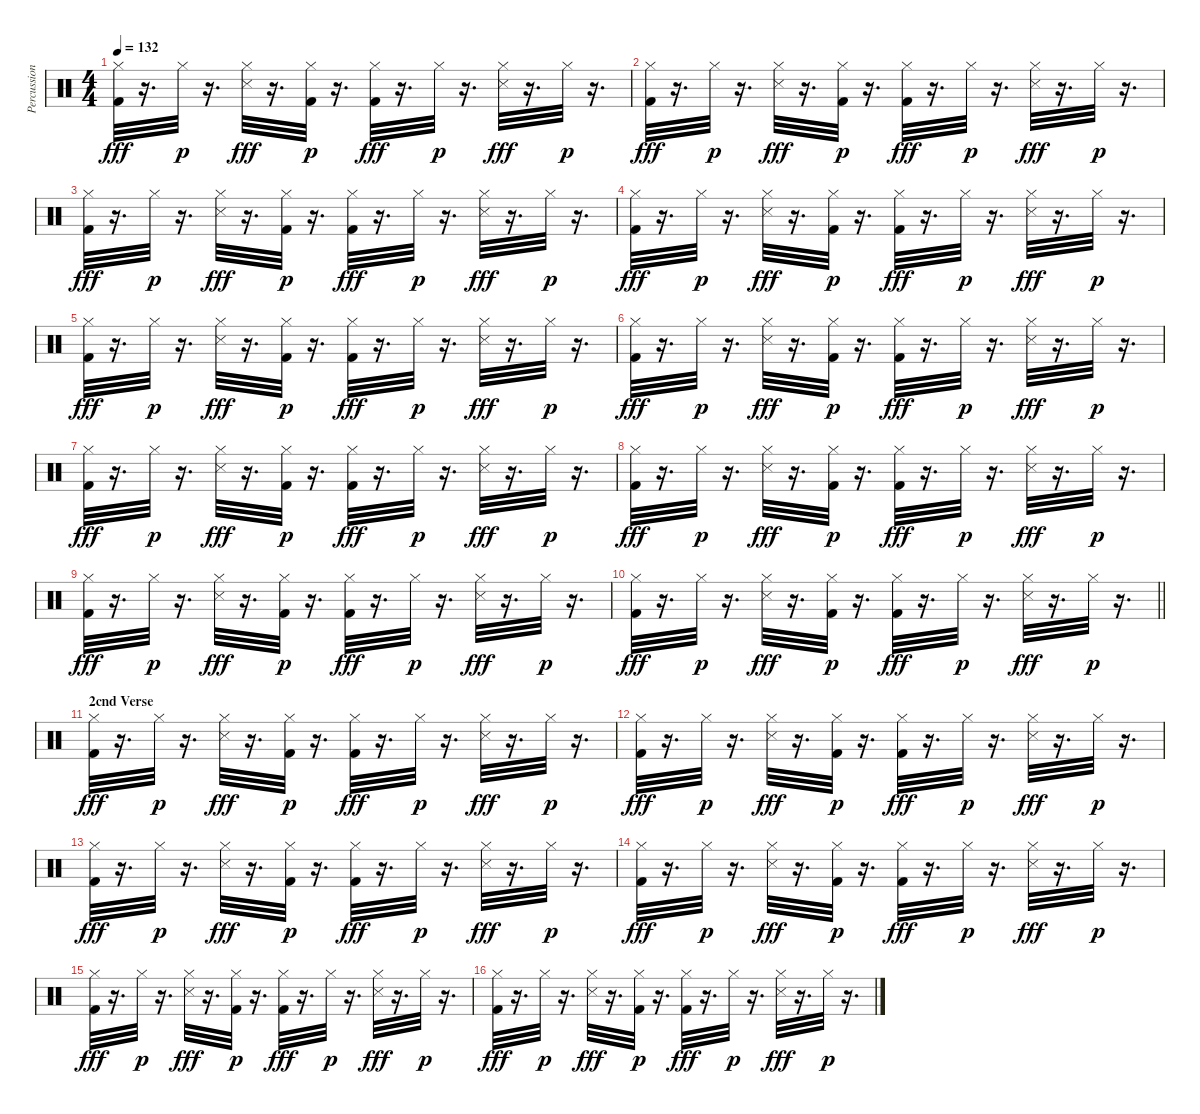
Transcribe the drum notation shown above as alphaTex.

\track ("Percussion" "Percussion") {instrument percussion}
\staff {score}
\articulation defaults
\ts (4 4)
\tempo 132
\clef neutral
\ks c
("Kick (hit) 2" "Hi-Hat (closed)").32{dy fff} r.16{d} "Hi-Hat (closed)".32{dy p} r.16{d} ("Snare (side stick) 3" "Hi-Hat (closed)").32{dy fff} r.16{d} ("Kick (hit) 2" "Hi-Hat (closed)").32{dy p} r.16{d} ("Kick (hit) 2" "Hi-Hat (closed)").32{dy fff} r.16{d} "Hi-Hat (closed)".32{dy p} r.16{d} ("Hi-Hat (closed)" "Snare (side stick) 3").32{dy fff} r.16{d} "Hi-Hat (closed)".32{dy p} r.16{d} |
("Kick (hit) 2" "Hi-Hat (closed)").32{dy fff} r.16{d} "Hi-Hat (closed)".32{dy p} r.16{d} ("Snare (side stick) 3" "Hi-Hat (closed)").32{dy fff} r.16{d} ("Kick (hit) 2" "Hi-Hat (closed)").32{dy p} r.16{d} ("Kick (hit) 2" "Hi-Hat (closed)").32{dy fff} r.16{d} "Hi-Hat (closed)".32{dy p} r.16{d} ("Hi-Hat (closed)" "Snare (side stick) 3").32{dy fff} r.16{d} "Hi-Hat (closed)".32{dy p} r.16{d} |
("Kick (hit) 2" "Hi-Hat (closed)").32{dy fff} r.16{d} "Hi-Hat (closed)".32{dy p} r.16{d} ("Snare (side stick) 3" "Hi-Hat (closed)").32{dy fff} r.16{d} ("Kick (hit) 2" "Hi-Hat (closed)").32{dy p} r.16{d} ("Kick (hit) 2" "Hi-Hat (closed)").32{dy fff} r.16{d} "Hi-Hat (closed)".32{dy p} r.16{d} ("Snare (side stick) 3" "Hi-Hat (closed)").32{dy fff} r.16{d} "Hi-Hat (closed)".32{dy p} r.16{d} |
("Kick (hit) 2" "Hi-Hat (closed)").32{dy fff} r.16{d} "Hi-Hat (closed)".32{dy p} r.16{d} ("Snare (side stick) 3" "Hi-Hat (closed)").32{dy fff} r.16{d} ("Kick (hit) 2" "Hi-Hat (closed)").32{dy p} r.16{d} ("Kick (hit) 2" "Hi-Hat (closed)").32{dy fff} r.16{d} "Hi-Hat (closed)".32{dy p} r.16{d} ("Hi-Hat (closed)" "Snare (side stick) 3").32{dy fff} r.16{d} "Hi-Hat (closed)".32{dy p} r.16{d} |
("Kick (hit) 2" "Hi-Hat (closed)").32{dy fff} r.16{d} "Hi-Hat (closed)".32{dy p} r.16{d} ("Hi-Hat (closed)" "Snare (side stick) 3").32{dy fff} r.16{d} ("Kick (hit) 2" "Hi-Hat (closed)").32{dy p} r.16{d} ("Kick (hit) 2" "Hi-Hat (closed)").32{dy fff} r.16{d} "Hi-Hat (closed)".32{dy p} r.16{d} ("Snare (side stick) 3" "Hi-Hat (closed)").32{dy fff} r.16{d} "Hi-Hat (closed)".32{dy p} r.16{d} |
("Kick (hit) 2" "Hi-Hat (closed)").32{dy fff} r.16{d} "Hi-Hat (closed)".32{dy p} r.16{d} ("Snare (side stick) 3" "Hi-Hat (closed)").32{dy fff} r.16{d} ("Kick (hit) 2" "Hi-Hat (closed)").32{dy p} r.16{d} ("Kick (hit) 2" "Hi-Hat (closed)").32{dy fff} r.16{d} "Hi-Hat (closed)".32{dy p} r.16{d} ("Hi-Hat (closed)" "Snare (side stick) 3").32{dy fff} r.16{d} "Hi-Hat (closed)".32{dy p} r.16{d} |
("Kick (hit) 2" "Hi-Hat (closed)").32{dy fff} r.16{d} "Hi-Hat (closed)".32{dy p} r.16{d} ("Hi-Hat (closed)" "Snare (side stick) 3").32{dy fff} r.16{d} ("Kick (hit) 2" "Hi-Hat (closed)").32{dy p} r.16{d} ("Kick (hit) 2" "Hi-Hat (closed)").32{dy fff} r.16{d} "Hi-Hat (closed)".32{dy p} r.16{d} ("Snare (side stick) 3" "Hi-Hat (closed)").32{dy fff} r.16{d} "Hi-Hat (closed)".32{dy p} r.16{d} |
("Kick (hit) 2" "Hi-Hat (closed)").32{dy fff} r.16{d} "Hi-Hat (closed)".32{dy p} r.16{d} ("Snare (side stick) 3" "Hi-Hat (closed)").32{dy fff} r.16{d} ("Kick (hit) 2" "Hi-Hat (closed)").32{dy p} r.16{d} ("Kick (hit) 2" "Hi-Hat (closed)").32{dy fff} r.16{d} "Hi-Hat (closed)".32{dy p} r.16{d} ("Hi-Hat (closed)" "Snare (side stick) 3").32{dy fff} r.16{d} "Hi-Hat (closed)".32{dy p} r.16{d} |
("Kick (hit) 2" "Hi-Hat (closed)").32{dy fff} r.16{d} "Hi-Hat (closed)".32{dy p} r.16{d} ("Hi-Hat (closed)" "Snare (side stick) 3").32{dy fff} r.16{d} ("Kick (hit) 2" "Hi-Hat (closed)").32{dy p} r.16{d} ("Kick (hit) 2" "Hi-Hat (closed)").32{dy fff} r.16{d} "Hi-Hat (closed)".32{dy p} r.16{d} ("Snare (side stick) 3" "Hi-Hat (closed)").32{dy fff} r.16{d} "Hi-Hat (closed)".32{dy p} r.16{d} |
\barLineRight lightlight
("Kick (hit) 2" "Hi-Hat (closed)").32{dy fff} r.16{d} "Hi-Hat (closed)".32{dy p} r.16{d} ("Snare (side stick) 3" "Hi-Hat (closed)").32{dy fff} r.16{d} ("Kick (hit) 2" "Hi-Hat (closed)").32{dy p} r.16{d} ("Kick (hit) 2" "Hi-Hat (closed)").32{dy fff} r.16{d} "Hi-Hat (closed)".32{dy p} r.16{d} ("Hi-Hat (closed)" "Snare (side stick) 3").32{dy fff} r.16{d} "Hi-Hat (closed)".32{dy p} r.16{d} |
\section ("" "2cnd Verse")
("Kick (hit) 2" "Hi-Hat (closed)").32{dy fff} r.16{d} "Hi-Hat (closed)".32{dy p} r.16{d} ("Snare (side stick) 3" "Hi-Hat (closed)").32{dy fff} r.16{d} ("Kick (hit) 2" "Hi-Hat (closed)").32{dy p} r.16{d} ("Kick (hit) 2" "Hi-Hat (closed)").32{dy fff} r.16{d} "Hi-Hat (closed)".32{dy p} r.16{d} ("Snare (side stick) 3" "Hi-Hat (closed)").32{dy fff} r.16{d} "Hi-Hat (closed)".32{dy p} r.16{d} |
("Kick (hit) 2" "Hi-Hat (closed)").32{dy fff} r.16{d} "Hi-Hat (closed)".32{dy p} r.16{d} ("Snare (side stick) 3" "Hi-Hat (closed)").32{dy fff} r.16{d} ("Kick (hit) 2" "Hi-Hat (closed)").32{dy p} r.16{d} ("Kick (hit) 2" "Hi-Hat (closed)").32{dy fff} r.16{d} "Hi-Hat (closed)".32{dy p} r.16{d} ("Snare (side stick) 3" "Hi-Hat (closed)").32{dy fff} r.16{d} "Hi-Hat (closed)".32{dy p} r.16{d} |
("Kick (hit) 2" "Hi-Hat (closed)").32{dy fff} r.16{d} "Hi-Hat (closed)".32{dy p} r.16{d} ("Hi-Hat (closed)" "Snare (side stick) 3").32{dy fff} r.16{d} ("Kick (hit) 2" "Hi-Hat (closed)").32{dy p} r.16{d} ("Kick (hit) 2" "Hi-Hat (closed)").32{dy fff} r.16{d} "Hi-Hat (closed)".32{dy p} r.16{d} ("Snare (side stick) 3" "Hi-Hat (closed)").32{dy fff} r.16{d} "Hi-Hat (closed)".32{dy p} r.16{d} |
("Kick (hit) 2" "Hi-Hat (closed)").32{dy fff} r.16{d} "Hi-Hat (closed)".32{dy p} r.16{d} ("Hi-Hat (closed)" "Snare (side stick) 3").32{dy fff} r.16{d} ("Kick (hit) 2" "Hi-Hat (closed)").32{dy p} r.16{d} ("Kick (hit) 2" "Hi-Hat (closed)").32{dy fff} r.16{d} "Hi-Hat (closed)".32{dy p} r.16{d} ("Snare (side stick) 3" "Hi-Hat (closed)").32{dy fff} r.16{d} "Hi-Hat (closed)".32{dy p} r.16{d} |
("Kick (hit) 2" "Hi-Hat (closed)").32{dy fff} r.16{d} "Hi-Hat (closed)".32{dy p} r.16{d} ("Snare (side stick) 3" "Hi-Hat (closed)").32{dy fff} r.16{d} ("Kick (hit) 2" "Hi-Hat (closed)").32{dy p} r.16{d} ("Kick (hit) 2" "Hi-Hat (closed)").32{dy fff} r.16{d} "Hi-Hat (closed)".32{dy p} r.16{d} ("Snare (side stick) 3" "Hi-Hat (closed)").32{dy fff} r.16{d} "Hi-Hat (closed)".32{dy p} r.16{d} |
("Kick (hit) 2" "Hi-Hat (closed)").32{dy fff} r.16{d} "Hi-Hat (closed)".32{dy p} r.16{d} ("Snare (side stick) 3" "Hi-Hat (closed)").32{dy fff} r.16{d} ("Kick (hit) 2" "Hi-Hat (closed)").32{dy p} r.16{d} ("Kick (hit) 2" "Hi-Hat (closed)").32{dy fff} r.16{d} "Hi-Hat (closed)".32{dy p} r.16{d} ("Hi-Hat (closed)" "Snare (side stick) 3").32{dy fff} r.16{d} "Hi-Hat (closed)".32{dy p} r.16{d}
